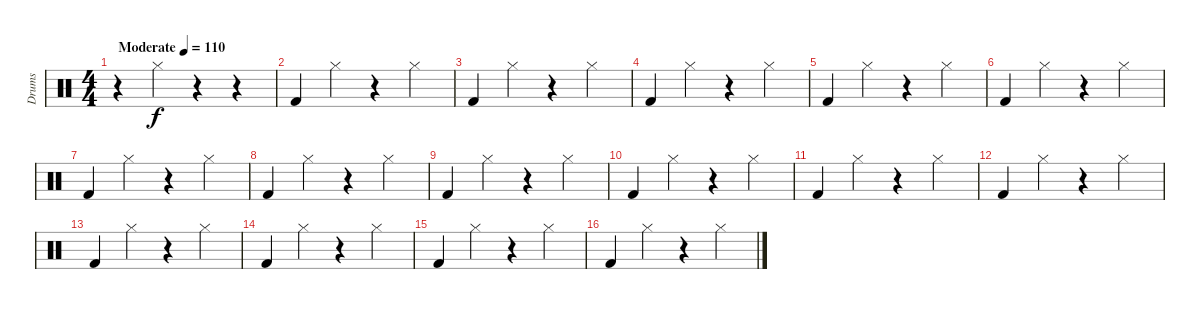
\track ("Drums" "Drums") {instrument percussion}
\staff {score}
\articulation defaults
\ts (4 4)
\tempo (110 "Moderate")
\clef neutral
\ks c
r.4{dy f} "Hi-Hat (closed)".4 r.4 r.4 |
"Kick (hit) 2".4 "Hi-Hat (closed)".4 r.4 "Hi-Hat (closed)".4 |
"Kick (hit) 2".4 "Hi-Hat (closed)".4 r.4 "Hi-Hat (closed)".4 |
"Kick (hit) 2".4 "Hi-Hat (closed)".4 r.4 "Hi-Hat (closed)".4 |
"Kick (hit) 2".4 "Hi-Hat (closed)".4 r.4 "Hi-Hat (closed)".4 |
"Kick (hit) 2".4 "Hi-Hat (closed)".4 r.4 "Hi-Hat (closed)".4 |
"Kick (hit) 2".4 "Hi-Hat (closed)".4 r.4 "Hi-Hat (closed)".4 |
"Kick (hit) 2".4 "Hi-Hat (closed)".4 r.4 "Hi-Hat (closed)".4 |
"Kick (hit) 2".4 "Hi-Hat (closed)".4 r.4 "Hi-Hat (closed)".4 |
"Kick (hit) 2".4 "Hi-Hat (closed)".4 r.4 "Hi-Hat (closed)".4 |
"Kick (hit) 2".4 "Hi-Hat (closed)".4 r.4 "Hi-Hat (closed)".4 |
"Kick (hit) 2".4 "Hi-Hat (closed)".4 r.4 "Hi-Hat (closed)".4 |
"Kick (hit) 2".4 "Hi-Hat (closed)".4 r.4 "Hi-Hat (closed)".4 |
"Kick (hit) 2".4 "Hi-Hat (closed)".4 r.4 "Hi-Hat (closed)".4 |
"Kick (hit) 2".4 "Hi-Hat (closed)".4 r.4 "Hi-Hat (closed)".4 |
"Kick (hit) 2".4 "Hi-Hat (closed)".4 r.4 "Hi-Hat (closed)".4
